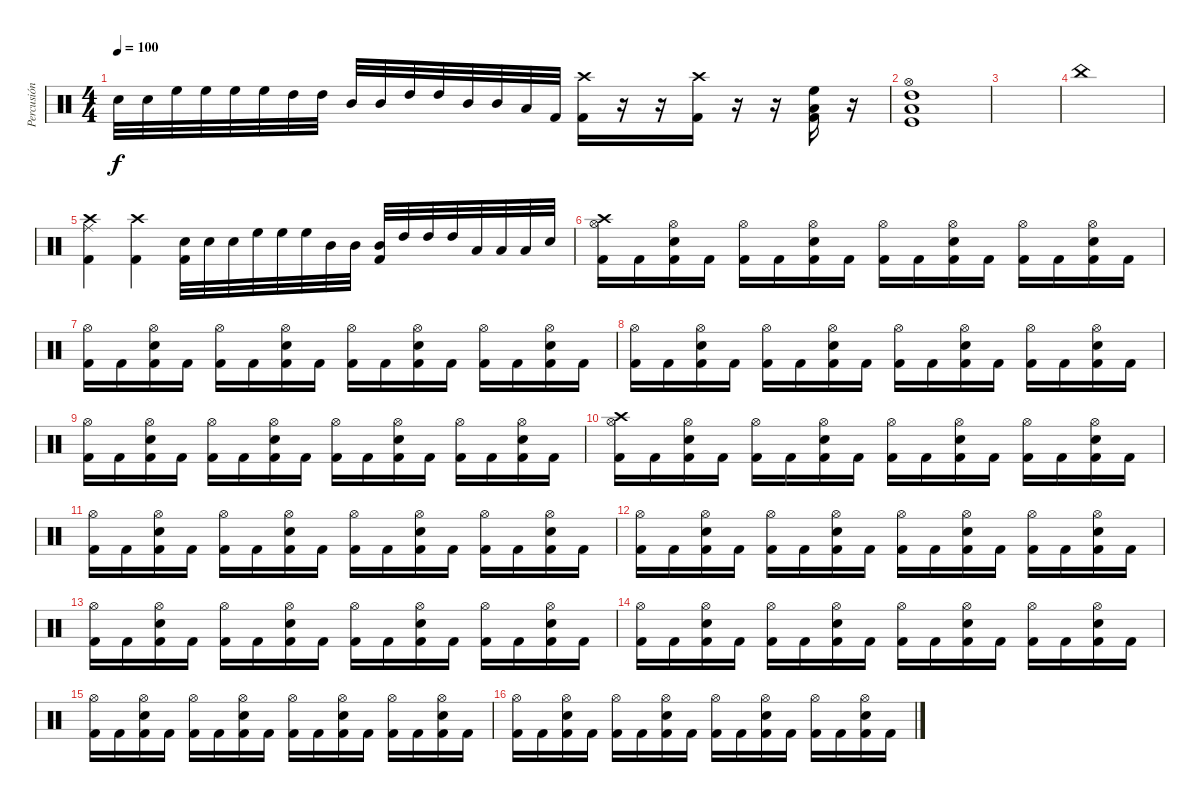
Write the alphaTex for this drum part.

\track ("Percusión" "Percusión") {instrument percussion bank 1}
\staff {score}
\articulation defaults
\ts (4 4)
\tempo 100
\clef neutral
\ks c "Snare (hit) 2".32{dy f} "Snare (hit) 2".32 "High Floor Tom (hit)".32 "High Floor Tom (hit)".32 "High Floor Tom (hit)".32 "High Floor Tom (hit)".32 "High Tom (hit)".32 "High Tom (hit)".32 "Mid Tom (hit)".32 "Mid Tom (hit)".32 "High Tom (hit)".32 "High Tom (hit)".32 "Mid Tom (hit)".32 "Mid Tom (hit)".32 "Low Tom (hit)".32 "Kick (hit) 2".32
("Kick (hit) 2" "Crash high (hit)").16 r.16 r.16 ("Kick (hit) 2" "Crash high (hit)").16 r.16 r.16 ("Low Tom (hit)" "Kick (hit) 2" "High Floor Tom (hit)").16 r.16 |
("Low Tom (hit)" "High Tom (hit)" "Kick (hit)" "Hi-Hat (open)").1 |
|
"China (hit)".1 |
("Kick (hit) 2" "Ride (middle)" "Crash high (hit)").4 ("Kick (hit) 2" "Crash high (hit)").4 ("Snare (hit) 2" "Kick (hit) 2").32 "Snare (hit) 2".32 "Snare (hit) 2".32 "High Floor Tom (hit)".32 "High Floor Tom (hit)".32 "High Floor Tom (hit)".32 "Mid Tom (hit)".32 "Mid Tom (hit)".32 ("Mid Tom (hit)" "Kick (hit) 2").32 "High Tom (hit)".32 "High Tom (hit)".32 "High Tom (hit)".32 "Low Tom (hit)".32 "Low Tom (hit)".32 "Low Tom (hit)".32 "Snare (hit) 2".32 |
("Hi-Hat (open)" "Kick (hit) 2" "Crash high (hit)").16 "Kick (hit) 2".16 ("Snare (hit) 2" "Hi-Hat (open)" "Kick (hit) 2").16 "Kick (hit) 2".16 ("Hi-Hat (open)" "Kick (hit) 2").16 "Kick (hit) 2".16 ("Snare (hit) 2" "Hi-Hat (open)" "Kick (hit) 2").16 "Kick (hit) 2".16 ("Hi-Hat (open)" "Kick (hit) 2").16 "Kick (hit) 2".16 ("Snare (hit) 2" "Hi-Hat (open)" "Kick (hit) 2").16 "Kick (hit) 2".16 ("Hi-Hat (open)" "Kick (hit) 2").16 "Kick (hit) 2".16 ("Snare (hit) 2" "Hi-Hat (open)" "Kick (hit) 2").16 "Kick (hit) 2".16 |
("Hi-Hat (open)" "Kick (hit) 2").16 "Kick (hit) 2".16 ("Snare (hit) 2" "Hi-Hat (open)" "Kick (hit) 2").16 "Kick (hit) 2".16 ("Hi-Hat (open)" "Kick (hit) 2").16 "Kick (hit) 2".16 ("Snare (hit) 2" "Hi-Hat (open)" "Kick (hit) 2").16 "Kick (hit) 2".16 ("Hi-Hat (open)" "Kick (hit) 2").16 "Kick (hit) 2".16 ("Snare (hit) 2" "Hi-Hat (open)" "Kick (hit) 2").16 "Kick (hit) 2".16 ("Hi-Hat (open)" "Kick (hit) 2").16 "Kick (hit) 2".16 ("Snare (hit) 2" "Hi-Hat (open)" "Kick (hit) 2").16 "Kick (hit) 2".16 |
("Hi-Hat (open)" "Kick (hit) 2").16 "Kick (hit) 2".16 ("Snare (hit) 2" "Hi-Hat (open)" "Kick (hit) 2").16 "Kick (hit) 2".16 ("Hi-Hat (open)" "Kick (hit) 2").16 "Kick (hit) 2".16 ("Snare (hit) 2" "Hi-Hat (open)" "Kick (hit) 2").16 "Kick (hit) 2".16 ("Hi-Hat (open)" "Kick (hit) 2").16 "Kick (hit) 2".16 ("Snare (hit) 2" "Hi-Hat (open)" "Kick (hit) 2").16 "Kick (hit) 2".16 ("Hi-Hat (open)" "Kick (hit) 2").16 "Kick (hit) 2".16 ("Snare (hit) 2" "Hi-Hat (open)" "Kick (hit) 2").16 "Kick (hit) 2".16 |
("Hi-Hat (open)" "Kick (hit) 2").16 "Kick (hit) 2".16 ("Snare (hit) 2" "Hi-Hat (open)" "Kick (hit) 2").16 "Kick (hit) 2".16 ("Hi-Hat (open)" "Kick (hit) 2").16 "Kick (hit) 2".16 ("Snare (hit) 2" "Hi-Hat (open)" "Kick (hit) 2").16 "Kick (hit) 2".16 ("Hi-Hat (open)" "Kick (hit) 2").16 "Kick (hit) 2".16 ("Snare (hit) 2" "Hi-Hat (open)" "Kick (hit) 2").16 "Kick (hit) 2".16 ("Hi-Hat (open)" "Kick (hit) 2").16 "Kick (hit) 2".16 ("Snare (hit) 2" "Hi-Hat (open)" "Kick (hit) 2").16 "Kick (hit) 2".16 |
("Hi-Hat (open)" "Kick (hit) 2" "Crash high (hit)").16 "Kick (hit) 2".16 ("Snare (hit) 2" "Hi-Hat (open)" "Kick (hit) 2").16 "Kick (hit) 2".16 ("Hi-Hat (open)" "Kick (hit) 2").16 "Kick (hit) 2".16 ("Snare (hit) 2" "Hi-Hat (open)" "Kick (hit) 2").16 "Kick (hit) 2".16 ("Hi-Hat (open)" "Kick (hit) 2").16 "Kick (hit) 2".16 ("Snare (hit) 2" "Hi-Hat (open)" "Kick (hit) 2").16 "Kick (hit) 2".16 ("Hi-Hat (open)" "Kick (hit) 2").16 "Kick (hit) 2".16 ("Snare (hit) 2" "Hi-Hat (open)" "Kick (hit) 2").16 "Kick (hit) 2".16 |
("Hi-Hat (open)" "Kick (hit) 2").16 "Kick (hit) 2".16 ("Snare (hit) 2" "Hi-Hat (open)" "Kick (hit) 2").16 "Kick (hit) 2".16 ("Hi-Hat (open)" "Kick (hit) 2").16 "Kick (hit) 2".16 ("Snare (hit) 2" "Hi-Hat (open)" "Kick (hit) 2").16 "Kick (hit) 2".16 ("Hi-Hat (open)" "Kick (hit) 2").16 "Kick (hit) 2".16 ("Snare (hit) 2" "Hi-Hat (open)" "Kick (hit) 2").16 "Kick (hit) 2".16 ("Hi-Hat (open)" "Kick (hit) 2").16 "Kick (hit) 2".16 ("Snare (hit) 2" "Hi-Hat (open)" "Kick (hit) 2").16 "Kick (hit) 2".16 |
("Hi-Hat (open)" "Kick (hit) 2").16 "Kick (hit) 2".16 ("Snare (hit) 2" "Hi-Hat (open)" "Kick (hit) 2").16 "Kick (hit) 2".16 ("Hi-Hat (open)" "Kick (hit) 2").16 "Kick (hit) 2".16 ("Snare (hit) 2" "Hi-Hat (open)" "Kick (hit) 2").16 "Kick (hit) 2".16 ("Hi-Hat (open)" "Kick (hit) 2").16 "Kick (hit) 2".16 ("Snare (hit) 2" "Hi-Hat (open)" "Kick (hit) 2").16 "Kick (hit) 2".16 ("Hi-Hat (open)" "Kick (hit) 2").16 "Kick (hit) 2".16 ("Snare (hit) 2" "Hi-Hat (open)" "Kick (hit) 2").16 "Kick (hit) 2".16 |
("Hi-Hat (open)" "Kick (hit) 2").16 "Kick (hit) 2".16 ("Snare (hit) 2" "Hi-Hat (open)" "Kick (hit) 2").16 "Kick (hit) 2".16 ("Hi-Hat (open)" "Kick (hit) 2").16 "Kick (hit) 2".16 ("Snare (hit) 2" "Hi-Hat (open)" "Kick (hit) 2").16 "Kick (hit) 2".16 ("Hi-Hat (open)" "Kick (hit) 2").16 "Kick (hit) 2".16 ("Snare (hit) 2" "Hi-Hat (open)" "Kick (hit) 2").16 "Kick (hit) 2".16 ("Hi-Hat (open)" "Kick (hit) 2").16 "Kick (hit) 2".16 ("Snare (hit) 2" "Hi-Hat (open)" "Kick (hit) 2").16 "Kick (hit) 2".16 |
("Hi-Hat (open)" "Kick (hit) 2").16 "Kick (hit) 2".16 ("Snare (hit) 2" "Hi-Hat (open)" "Kick (hit) 2").16 "Kick (hit) 2".16 ("Hi-Hat (open)" "Kick (hit) 2").16 "Kick (hit) 2".16 ("Snare (hit) 2" "Hi-Hat (open)" "Kick (hit) 2").16 "Kick (hit) 2".16 ("Hi-Hat (open)" "Kick (hit) 2").16 "Kick (hit) 2".16 ("Snare (hit) 2" "Hi-Hat (open)" "Kick (hit) 2").16 "Kick (hit) 2".16 ("Hi-Hat (open)" "Kick (hit) 2").16 "Kick (hit) 2".16 ("Snare (hit) 2" "Hi-Hat (open)" "Kick (hit) 2").16 "Kick (hit) 2".16 |
("Hi-Hat (open)" "Kick (hit) 2").16 "Kick (hit) 2".16 ("Snare (hit) 2" "Hi-Hat (open)" "Kick (hit) 2").16 "Kick (hit) 2".16 ("Hi-Hat (open)" "Kick (hit) 2").16 "Kick (hit) 2".16 ("Snare (hit) 2" "Hi-Hat (open)" "Kick (hit) 2").16 "Kick (hit) 2".16 ("Hi-Hat (open)" "Kick (hit) 2").16 "Kick (hit) 2".16 ("Snare (hit) 2" "Hi-Hat (open)" "Kick (hit) 2").16 "Kick (hit) 2".16 ("Hi-Hat (open)" "Kick (hit) 2").16 "Kick (hit) 2".16 ("Snare (hit) 2" "Hi-Hat (open)" "Kick (hit) 2").16 "Kick (hit) 2".16 |
("Hi-Hat (open)" "Kick (hit) 2").16 "Kick (hit) 2".16 ("Snare (hit) 2" "Hi-Hat (open)" "Kick (hit) 2").16 "Kick (hit) 2".16 ("Hi-Hat (open)" "Kick (hit) 2").16 "Kick (hit) 2".16 ("Snare (hit) 2" "Hi-Hat (open)" "Kick (hit) 2").16 "Kick (hit) 2".16 ("Hi-Hat (open)" "Kick (hit) 2").16 "Kick (hit) 2".16 ("Snare (hit) 2" "Hi-Hat (open)" "Kick (hit) 2").16 "Kick (hit) 2".16 ("Hi-Hat (open)" "Kick (hit) 2").16 "Kick (hit) 2".16 ("Snare (hit) 2" "Hi-Hat (open)" "Kick (hit) 2").16 "Kick (hit) 2".16
